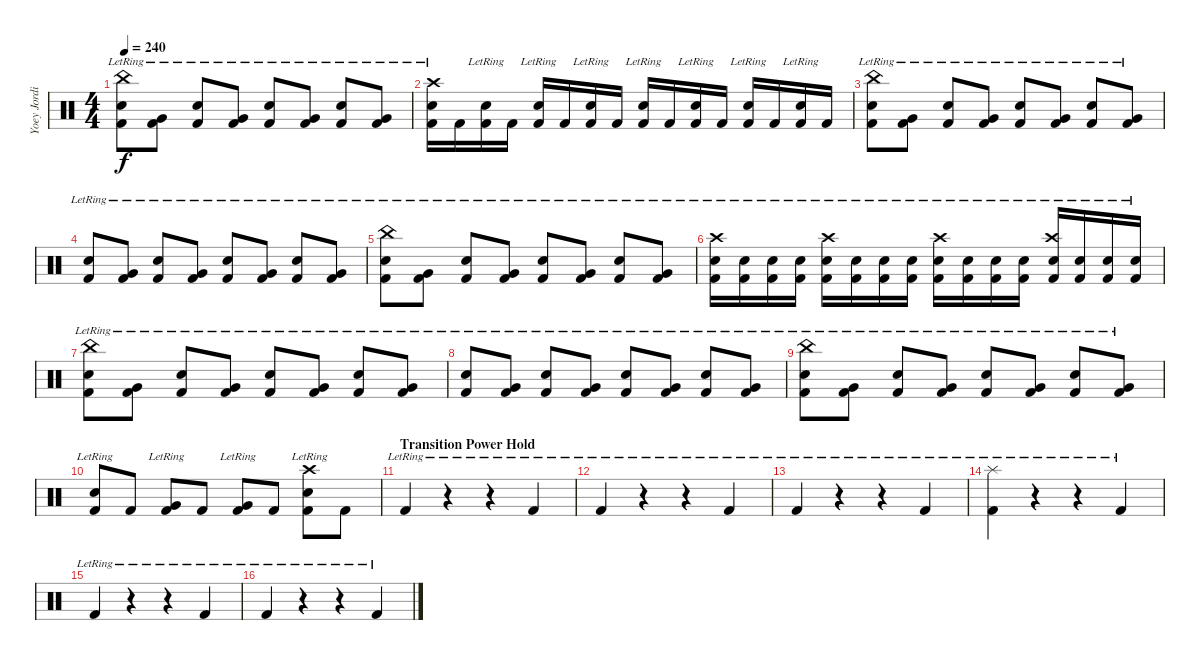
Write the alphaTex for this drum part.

\track ("Yoey Jordison" "Yoey Jordi") {instrument percussion}
\staff {score}
\articulation defaults
\ts (4 4)
\tempo 240
\clef neutral
\ks c
("China (hit)" "Kick (hit) 2" "Electric Snare (hit)"{lr}).8{dy f} ("Kick (hit) 2" "Very Low Tom (hit)"{lr}).8 ("Kick (hit) 2" "Electric Snare (hit)"{lr}).8 ("Kick (hit) 2" "Very Low Tom (hit)"{lr}).8 ("Kick (hit) 2" "Electric Snare (hit)"{lr}).8 ("Kick (hit) 2" "Very Low Tom (hit)"{lr}).8 ("Kick (hit) 2" "Electric Snare (hit)"{lr}).8 ("Kick (hit) 2" "Very Low Tom (hit)"{lr}).8 |
("Crash high (hit)" "Kick (hit) 2" "Electric Snare (hit)"{lr}).16 "Kick (hit) 2".16 ("Kick (hit) 2" "Snare (hit) 2"{lr}).16 "Kick (hit) 2".16 ("Kick (hit) 2" "Electric Snare (hit)"{lr}).16 "Kick (hit) 2".16 ("Kick (hit) 2" "Snare (hit) 2"{lr}).16 "Kick (hit) 2".16 ("Kick (hit) 2" "Electric Snare (hit)"{lr}).16 "Kick (hit) 2".16 ("Kick (hit) 2" "Snare (hit) 2"{lr}).16 "Kick (hit) 2".16 ("Kick (hit) 2" "Electric Snare (hit)"{lr}).16 "Kick (hit) 2".16 ("Kick (hit) 2" "Snare (hit) 2"{lr}).16 "Kick (hit) 2".16 |
("China (hit)" "Kick (hit) 2" "Electric Snare (hit)"{lr}).8 ("Kick (hit) 2" "Very Low Tom (hit)"{lr}).8 ("Kick (hit) 2" "Electric Snare (hit)"{lr}).8 ("Kick (hit) 2" "Very Low Tom (hit)"{lr}).8 ("Kick (hit) 2" "Electric Snare (hit)"{lr}).8 ("Kick (hit) 2" "Very Low Tom (hit)"{lr}).8 ("Kick (hit) 2" "Electric Snare (hit)"{lr}).8 ("Kick (hit) 2" "Very Low Tom (hit)"{lr}).8 |
("Kick (hit) 2" "Electric Snare (hit)"{lr}).8 ("Kick (hit) 2" "Very Low Tom (hit)"{lr}).8 ("Kick (hit) 2" "Electric Snare (hit)"{lr}).8 ("Kick (hit) 2" "Very Low Tom (hit)"{lr}).8 ("Kick (hit) 2" "Electric Snare (hit)"{lr}).8 ("Kick (hit) 2" "Very Low Tom (hit)"{lr}).8 ("Kick (hit) 2" "Electric Snare (hit)"{lr}).8 ("Kick (hit) 2" "Very Low Tom (hit)"{lr}).8 |
("China (hit)" "Kick (hit) 2" "Electric Snare (hit)"{lr}).8 ("Kick (hit) 2" "Very Low Tom (hit)"{lr}).8 ("Kick (hit) 2" "Electric Snare (hit)"{lr}).8 ("Kick (hit) 2" "Very Low Tom (hit)"{lr}).8 ("Kick (hit) 2" "Electric Snare (hit)"{lr}).8 ("Kick (hit) 2" "Very Low Tom (hit)"{lr}).8 ("Kick (hit) 2" "Electric Snare (hit)"{lr}).8 ("Kick (hit) 2" "Very Low Tom (hit)"{lr}).8 |
("Crash high (hit)" "Kick (hit) 2" "Electric Snare (hit)"{lr}).16 ("Kick (hit) 2" "Snare (hit) 2"{lr}).16 ("Kick (hit) 2" "Electric Snare (hit)"{lr}).16 ("Kick (hit) 2" "Snare (hit) 2"{lr}).16 ("Crash high (hit)" "Kick (hit) 2" "Electric Snare (hit)"{lr}).16 ("Kick (hit) 2" "Snare (hit) 2"{lr}).16 ("Kick (hit) 2" "Electric Snare (hit)"{lr}).16 ("Kick (hit) 2" "Snare (hit) 2"{lr}).16 ("Crash high (hit)" "Kick (hit) 2" "Electric Snare (hit)"{lr}).16 ("Kick (hit) 2" "Snare (hit) 2"{lr}).16 ("Kick (hit) 2" "Electric Snare (hit)"{lr}).16 ("Kick (hit) 2" "Snare (hit) 2"{lr}).16 ("Crash high (hit)" "Kick (hit) 2" "Snare (hit) 2"{lr}).16 ("Kick (hit) 2" "Snare (hit) 2"{lr}).16 ("Kick (hit) 2" "Snare (hit) 2"{lr}).16 ("Kick (hit) 2" "Snare (hit) 2"{lr}).16 |
("China (hit)" "Kick (hit) 2" "Electric Snare (hit)"{lr}).8 ("Kick (hit) 2" "Very Low Tom (hit)"{lr}).8 ("Kick (hit) 2" "Electric Snare (hit)"{lr}).8 ("Kick (hit) 2" "Very Low Tom (hit)"{lr}).8 ("Kick (hit) 2" "Electric Snare (hit)"{lr}).8 ("Kick (hit) 2" "Very Low Tom (hit)"{lr}).8 ("Kick (hit) 2" "Electric Snare (hit)"{lr}).8 ("Kick (hit) 2" "Very Low Tom (hit)"{lr}).8 |
("Kick (hit) 2" "Electric Snare (hit)"{lr}).8 ("Kick (hit) 2" "Very Low Tom (hit)"{lr}).8 ("Kick (hit) 2" "Electric Snare (hit)"{lr}).8 ("Kick (hit) 2" "Very Low Tom (hit)"{lr}).8 ("Kick (hit) 2" "Electric Snare (hit)"{lr}).8 ("Kick (hit) 2" "Very Low Tom (hit)"{lr}).8 ("Kick (hit) 2" "Electric Snare (hit)"{lr}).8 ("Kick (hit) 2" "Very Low Tom (hit)"{lr}).8 |
("China (hit)" "Kick (hit) 2" "Electric Snare (hit)"{lr}).8 ("Kick (hit) 2" "Very Low Tom (hit)"{lr}).8 ("Kick (hit) 2" "Electric Snare (hit)"{lr}).8 ("Kick (hit) 2" "Very Low Tom (hit)"{lr}).8 ("Kick (hit) 2" "Electric Snare (hit)"{lr}).8 ("Kick (hit) 2" "Very Low Tom (hit)"{lr}).8 ("Kick (hit) 2" "Electric Snare (hit)"{lr}).8 ("Kick (hit) 2" "Very Low Tom (hit)"{lr}).8 |
("Kick (hit) 2" "Electric Snare (hit)"{lr}).8 "Kick (hit) 2".8 ("Kick (hit) 2" "Very Low Tom (hit)"{lr}).8 "Kick (hit) 2".8 ("Kick (hit) 2" "Very Low Tom (hit)"{lr}).8 "Kick (hit) 2".8 ("Crash high (hit)" "Kick (hit) 2" "Electric Snare (hit)"{lr}).8 "Kick (hit) 2".8 |
\section ("" "Transition Power Hold")
"Kick (hit) 2"{lr}.4 r.4 r.4 "Kick (hit) 2"{lr}.4 |
"Kick (hit) 2"{lr}.4 r.4 r.4 "Kick (hit) 2"{lr}.4 |
"Kick (hit) 2"{lr}.4 r.4 r.4 "Kick (hit) 2"{lr}.4 |
("Splash (hit)" "Kick (hit) 2"{lr}).4 r.4 r.4 "Kick (hit) 2"{lr}.4 |
"Kick (hit) 2"{lr}.4 r.4 r.4 "Kick (hit) 2"{lr}.4 |
"Kick (hit) 2"{lr}.4 r.4 r.4 "Kick (hit) 2"{lr}.4
